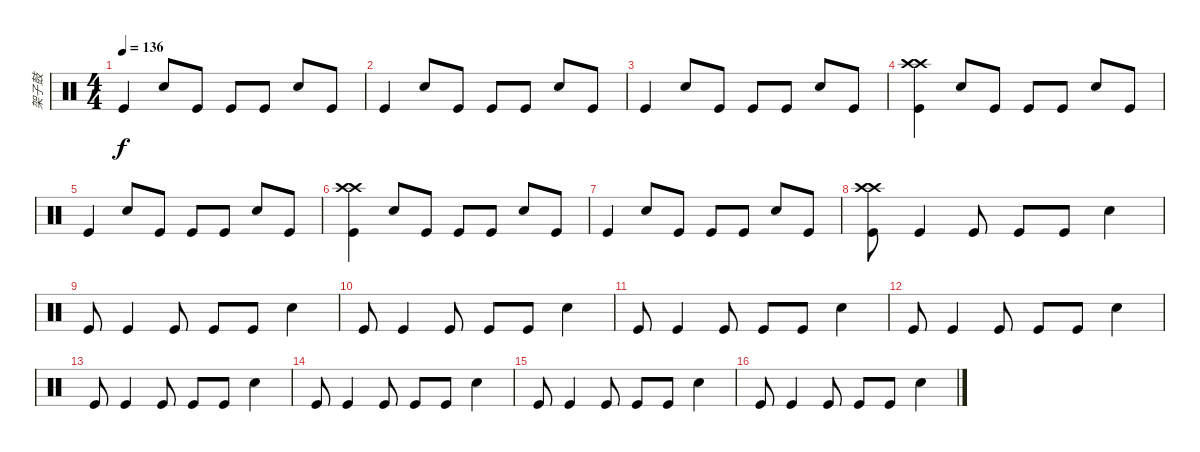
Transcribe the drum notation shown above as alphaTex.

\track ("架子鼓" "架子鼓") {instrument percussion}
\staff {score}
\articulation defaults
\ts (4 4)
\tempo 136
\clef neutral
\ks c "Kick (hit)".4{dy f} "Snare (hit) 2".8 "Kick (hit)".8 "Kick (hit)".8 "Kick (hit)".8 "Snare (hit) 2".8 "Kick (hit)".8
|
"Kick (hit)".4 "Snare (hit) 2".8 "Kick (hit)".8 "Kick (hit)".8 "Kick (hit)".8 "Snare (hit) 2".8 "Kick (hit)".8 |
"Kick (hit)".4 "Snare (hit) 2".8 "Kick (hit)".8 "Kick (hit)".8 "Kick (hit)".8 "Snare (hit) 2".8 "Kick (hit)".8 |
("Crash high (hit)" "Crash high (hit)" "Kick (hit)").4 "Snare (hit) 2".8 "Kick (hit)".8 "Kick (hit)".8 "Kick (hit)".8 "Snare (hit) 2".8 "Kick (hit)".8 |
"Kick (hit)".4 "Snare (hit) 2".8 "Kick (hit)".8 "Kick (hit)".8 "Kick (hit)".8 "Snare (hit) 2".8 "Kick (hit)".8 |
("Crash high (hit)" "Crash high (hit)" "Kick (hit)").4 "Snare (hit) 2".8 "Kick (hit)".8 "Kick (hit)".8 "Kick (hit)".8 "Snare (hit) 2".8 "Kick (hit)".8 |
"Kick (hit)".4 "Snare (hit) 2".8 "Kick (hit)".8 "Kick (hit)".8 "Kick (hit)".8 "Snare (hit) 2".8 "Kick (hit)".8 |
("Crash high (hit)" "Crash high (hit)" "Kick (hit)").8 "Kick (hit)".4 "Kick (hit)".8 "Kick (hit)".8 "Kick (hit)".8 "Snare (hit) 2".4 |
"Kick (hit)".8 "Kick (hit)".4 "Kick (hit)".8 "Kick (hit)".8 "Kick (hit)".8 "Snare (hit) 2".4 |
"Kick (hit)".8 "Kick (hit)".4 "Kick (hit)".8 "Kick (hit)".8 "Kick (hit)".8 "Snare (hit) 2".4 |
"Kick (hit)".8 "Kick (hit)".4 "Kick (hit)".8 "Kick (hit)".8 "Kick (hit)".8 "Snare (hit) 2".4 |
"Kick (hit)".8 "Kick (hit)".4 "Kick (hit)".8 "Kick (hit)".8 "Kick (hit)".8 "Snare (hit) 2".4 |
"Kick (hit)".8 "Kick (hit)".4 "Kick (hit)".8 "Kick (hit)".8 "Kick (hit)".8 "Snare (hit) 2".4 |
"Kick (hit)".8 "Kick (hit)".4 "Kick (hit)".8 "Kick (hit)".8 "Kick (hit)".8 "Snare (hit) 2".4 |
"Kick (hit)".8 "Kick (hit)".4 "Kick (hit)".8 "Kick (hit)".8 "Kick (hit)".8 "Snare (hit) 2".4 |
"Kick (hit)".8 "Kick (hit)".4 "Kick (hit)".8 "Kick (hit)".8 "Kick (hit)".8 "Snare (hit) 2".4
